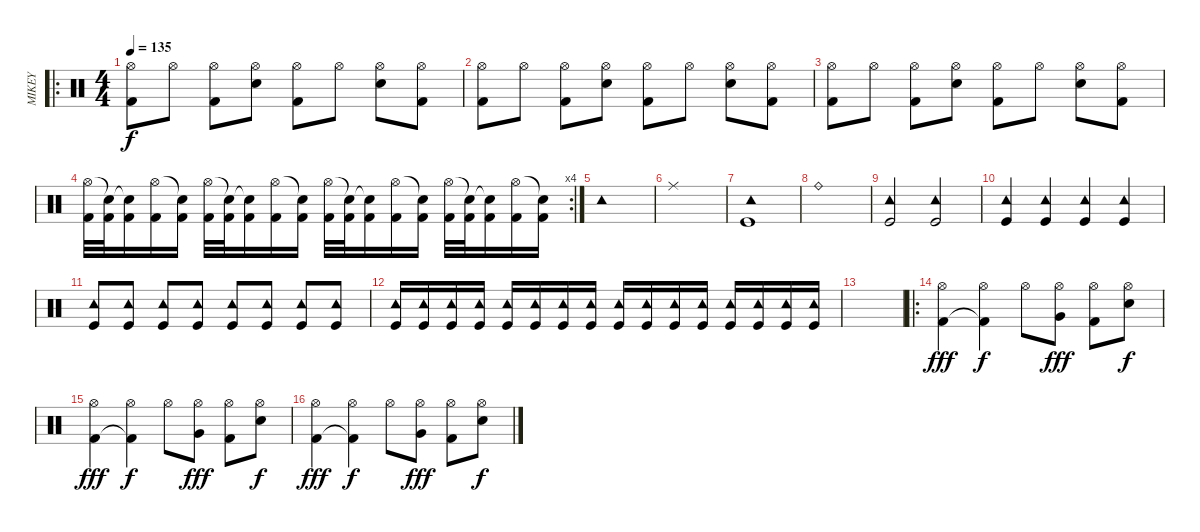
\track ("MIKEY" "MIKEY") {instrument percussion}
\staff {score}
\articulation defaults
\ro
\ts (4 4)
\tempo 135
\clef neutral
\ks c
("Kick (hit) 2" "Hi-Hat (open)").8{dy f} "Hi-Hat (open)".8 ("Kick (hit) 2" "Hi-Hat (open)").8 ("Snare (hit) 2" "Hi-Hat (open)").8 ("Kick (hit) 2" "Hi-Hat (open)").8 "Hi-Hat (open)".8 ("Snare (hit) 2" "Hi-Hat (open)").8 ("Kick (hit) 2" "Hi-Hat (open)").8 |
("Kick (hit) 2" "Hi-Hat (open)").8 "Hi-Hat (open)".8 ("Kick (hit) 2" "Hi-Hat (open)").8 ("Snare (hit) 2" "Hi-Hat (open)").8 ("Kick (hit) 2" "Hi-Hat (open)").8 "Hi-Hat (open)".8 ("Snare (hit) 2" "Hi-Hat (open)").8 ("Kick (hit) 2" "Hi-Hat (open)").8 |
("Kick (hit) 2" "Hi-Hat (open)").8 "Hi-Hat (open)".8 ("Kick (hit) 2" "Hi-Hat (open)").8 ("Snare (hit) 2" "Hi-Hat (open)").8 ("Kick (hit) 2" "Hi-Hat (open)").8 "Hi-Hat (open)".8 ("Snare (hit) 2" "Hi-Hat (open)").8 ("Kick (hit) 2" "Hi-Hat (open)").8 |
\rc 4
("Hi-Hat (open)" "Kick (hit) 2").32 ("Snare (hit)"{t} "Kick (hit) 2").32 ("Snare (hit)"{t} "Kick (hit) 2").16 ("Hi-Hat (open)" "Kick (hit) 2").16 ("Snare (hit)"{t} "Kick (hit) 2").16 ("Hi-Hat (open)" "Kick (hit) 2").32 ("Snare (hit)"{t} "Kick (hit) 2").32 ("Snare (hit)"{t} "Kick (hit) 2").16 ("Hi-Hat (open)" "Kick (hit) 2").16 ("Snare (hit)"{t} "Kick (hit) 2").16 ("Hi-Hat (open)" "Kick (hit) 2").32 ("Snare (hit)"{t} "Kick (hit) 2").32 ("Snare (hit)"{t} "Kick (hit) 2").16 ("Hi-Hat (open)" "Kick (hit) 2").16 ("Snare (hit)"{t} "Kick (hit) 2").16 ("Hi-Hat (open)" "Kick (hit) 2").32 ("Snare (hit)"{t} "Kick (hit) 2").32 ("Snare (hit)"{t} "Kick (hit) 2").16 ("Hi-Hat (open)" "Kick (hit) 2").16 ("Snare (hit)"{t} "Kick (hit) 2").16 |
"Tambourine (hit)".1 |
"Ride (middle)".1 |
("Kick (hit)" "Tambourine (hit)").1 |
"Ride (bell)".1 |
("Kick (hit)" "Tambourine (hit)").2 ("Kick (hit)" "Tambourine (hit)").2 |
("Kick (hit)" "Tambourine (hit)").4 ("Kick (hit)" "Tambourine (hit)").4 ("Kick (hit)" "Tambourine (hit)").4 ("Kick (hit)" "Tambourine (hit)").4 |
("Kick (hit)" "Tambourine (hit)").8 ("Kick (hit)" "Tambourine (hit)").8 ("Kick (hit)" "Tambourine (hit)").8 ("Kick (hit)" "Tambourine (hit)").8 ("Kick (hit)" "Tambourine (hit)").8 ("Kick (hit)" "Tambourine (hit)").8 ("Kick (hit)" "Tambourine (hit)").8 ("Kick (hit)" "Tambourine (hit)").8 |
("Kick (hit)" "Tambourine (hit)").16 ("Kick (hit)" "Tambourine (hit)").16 ("Kick (hit)" "Tambourine (hit)").16 ("Kick (hit)" "Tambourine (hit)").16 ("Kick (hit)" "Tambourine (hit)").16 ("Kick (hit)" "Tambourine (hit)").16 ("Kick (hit)" "Tambourine (hit)").16 ("Kick (hit)" "Tambourine (hit)").16 ("Kick (hit)" "Tambourine (hit)").16 ("Kick (hit)" "Tambourine (hit)").16 ("Kick (hit)" "Tambourine (hit)").16 ("Kick (hit)" "Tambourine (hit)").16 ("Kick (hit)" "Tambourine (hit)").16 ("Kick (hit)" "Tambourine (hit)").16 ("Kick (hit)" "Tambourine (hit)").16 ("Kick (hit)" "Tambourine (hit)").16 |
|
\ro
("Hi-Hat (open)" "Kick (hit) 2").4{dy fff} ("Hi-Hat (open)" "Kick (hit) 2"{t}).4{dy f} "Hi-Hat (open)".8 ("Hi-Hat (open)" "Very Low Tom (hit)").8{dy fff} ("Hi-Hat (open)" "Kick (hit) 2").8 ("Hi-Hat (open)" "Electric Snare (hit)").8{dy f} |
("Hi-Hat (open)" "Kick (hit) 2").4{dy fff} ("Hi-Hat (open)" "Kick (hit) 2"{t}).4{dy f} "Hi-Hat (open)".8 ("Hi-Hat (open)" "Very Low Tom (hit)").8{dy fff} ("Hi-Hat (open)" "Kick (hit) 2").8 ("Hi-Hat (open)" "Electric Snare (hit)").8{dy f} |
("Hi-Hat (open)" "Kick (hit) 2").4{dy fff} ("Hi-Hat (open)" "Kick (hit) 2"{t}).4{dy f} "Hi-Hat (open)".8 ("Hi-Hat (open)" "Very Low Tom (hit)").8{dy fff} ("Hi-Hat (open)" "Kick (hit) 2").8 ("Hi-Hat (open)" "Electric Snare (hit)").8{dy f}
